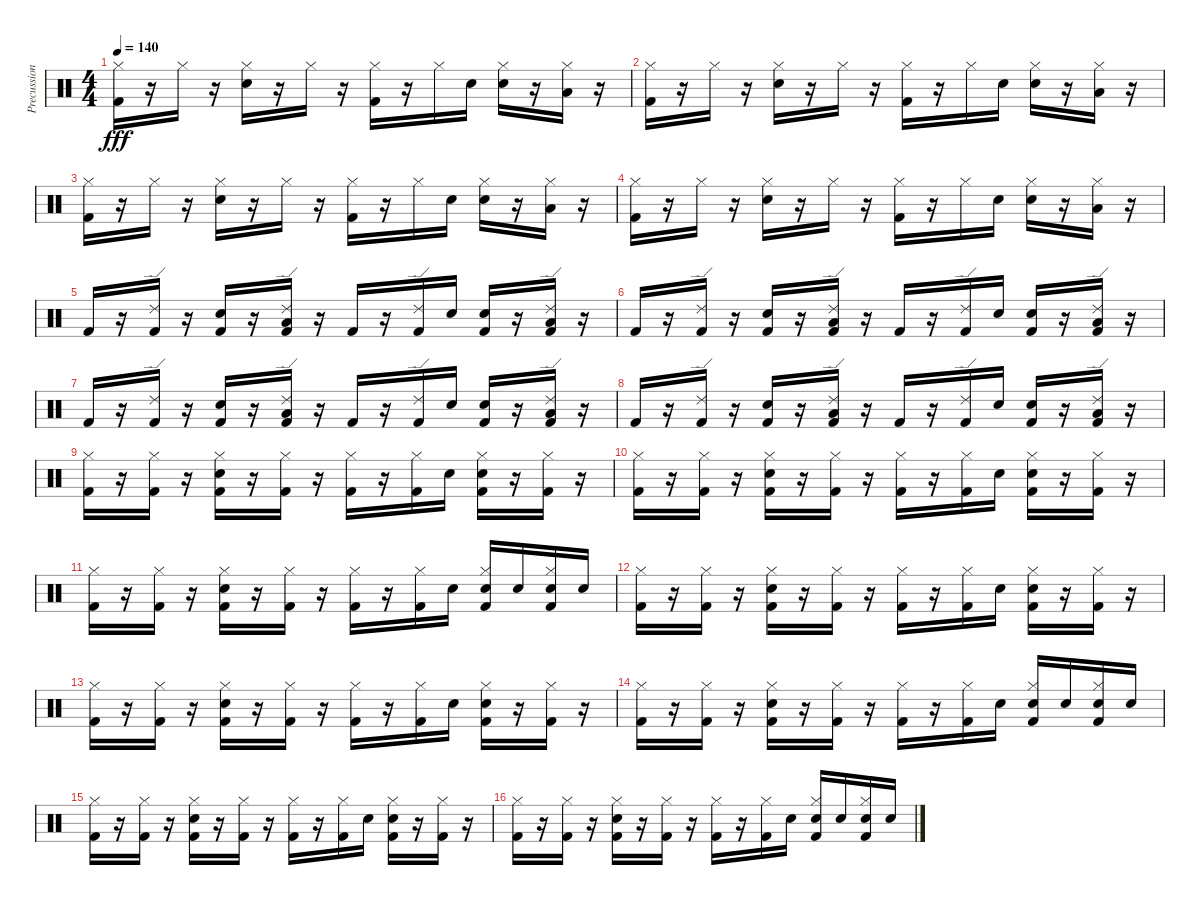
\track ("Precussion" "Precussion") {instrument percussion}
\staff {score}
\articulation defaults
\ts (4 4)
\tempo 140
\clef neutral
\ks c
("Kick (hit) 2" "Hi-Hat (closed)").16{dy fff} r.16 "Hi-Hat (closed)".16 r.16 ("Hi-Hat (closed)" "Snare (hit) 2").16 r.16 "Hi-Hat (closed)".16 r.16 ("Hi-Hat (closed)" "Kick (hit) 2").16 r.16 "Hi-Hat (closed)".16 "Snare (hit) 2".16 ("Hi-Hat (closed)" "Snare (hit) 2").16 r.16 ("Hi-Hat (closed)" "Low Floor Tom (hit)").16 r.16 |
("Kick (hit) 2" "Hi-Hat (closed)").16 r.16 "Hi-Hat (closed)".16 r.16 ("Hi-Hat (closed)" "Snare (hit) 2").16 r.16 "Hi-Hat (closed)".16 r.16 ("Hi-Hat (closed)" "Kick (hit) 2").16 r.16 "Hi-Hat (closed)".16 "Snare (hit) 2".16 ("Hi-Hat (closed)" "Snare (hit) 2").16 r.16 ("Hi-Hat (closed)" "Low Floor Tom (hit)").16 r.16 |
("Kick (hit) 2" "Hi-Hat (closed)").16 r.16 "Hi-Hat (closed)".16 r.16 ("Hi-Hat (closed)" "Snare (hit) 2").16 r.16 "Hi-Hat (closed)".16 r.16 ("Hi-Hat (closed)" "Kick (hit) 2").16 r.16 "Hi-Hat (closed)".16 "Snare (hit) 2".16 ("Hi-Hat (closed)" "Snare (hit) 2").16 r.16 ("Hi-Hat (closed)" "Low Floor Tom (hit)").16 r.16 |
("Kick (hit) 2" "Hi-Hat (closed)").16 r.16 "Hi-Hat (closed)".16 r.16 ("Hi-Hat (closed)" "Snare (hit) 2").16 r.16 "Hi-Hat (closed)".16 r.16 ("Hi-Hat (closed)" "Kick (hit) 2").16 r.16 "Hi-Hat (closed)".16 "Snare (hit) 2".16 ("Hi-Hat (closed)" "Snare (hit) 2").16 r.16 ("Hi-Hat (closed)" "Low Floor Tom (hit)").16 r.16 |
"Kick (hit) 2".16 r.16 ("Kick (hit) 2" "Ride (edge) 2").16 r.16 ("Kick (hit) 2" "Snare (hit) 2").16 r.16 ("Kick (hit) 2" "Ride (edge) 2" "Low Floor Tom (hit)").16 r.16 "Kick (hit) 2".16 r.16 ("Kick (hit) 2" "Ride (edge) 2").16 "Snare (hit) 2".16 ("Kick (hit) 2" "Snare (hit) 2").16 r.16 ("Kick (hit) 2" "Ride (edge) 2" "Low Floor Tom (hit)").16 r.16 |
"Kick (hit) 2".16 r.16 ("Kick (hit) 2" "Ride (edge) 2").16 r.16 ("Kick (hit) 2" "Snare (hit) 2").16 r.16 ("Kick (hit) 2" "Ride (edge) 2" "Low Floor Tom (hit)").16 r.16 "Kick (hit) 2".16 r.16 ("Kick (hit) 2" "Ride (edge) 2").16 "Snare (hit) 2".16 ("Kick (hit) 2" "Snare (hit) 2").16 r.16 ("Kick (hit) 2" "Ride (edge) 2" "Low Floor Tom (hit)").16 r.16 |
"Kick (hit) 2".16 r.16 ("Kick (hit) 2" "Ride (edge) 2").16 r.16 ("Kick (hit) 2" "Snare (hit) 2").16 r.16 ("Kick (hit) 2" "Ride (edge) 2" "Low Floor Tom (hit)").16 r.16 "Kick (hit) 2".16 r.16 ("Kick (hit) 2" "Ride (edge) 2").16 "Snare (hit) 2".16 ("Kick (hit) 2" "Snare (hit) 2").16 r.16 ("Kick (hit) 2" "Ride (edge) 2" "Low Floor Tom (hit)").16 r.16 |
"Kick (hit) 2".16 r.16 ("Kick (hit) 2" "Ride (edge) 2").16 r.16 ("Kick (hit) 2" "Snare (hit) 2").16 r.16 ("Kick (hit) 2" "Ride (edge) 2" "Low Floor Tom (hit)").16 r.16 "Kick (hit) 2".16 r.16 ("Kick (hit) 2" "Ride (edge) 2").16 "Snare (hit) 2".16 ("Kick (hit) 2" "Snare (hit) 2").16 r.16 ("Kick (hit) 2" "Ride (edge) 2" "Low Floor Tom (hit)").16 r.16 |
("Kick (hit) 2" "Hi-Hat (closed)").16 r.16 ("Kick (hit) 2" "Hi-Hat (closed)").16 r.16 ("Kick (hit) 2" "Snare (hit) 2" "Hi-Hat (closed)").16 r.16 ("Kick (hit) 2" "Hi-Hat (closed)").16 r.16 ("Kick (hit) 2" "Hi-Hat (closed)").16 r.16 ("Kick (hit) 2" "Hi-Hat (closed)").16 "Snare (hit) 2".16 ("Kick (hit) 2" "Snare (hit) 2" "Hi-Hat (closed)").16 r.16 ("Kick (hit) 2" "Hi-Hat (closed)").16 r.16 |
("Kick (hit) 2" "Hi-Hat (closed)").16 r.16 ("Kick (hit) 2" "Hi-Hat (closed)").16 r.16 ("Kick (hit) 2" "Snare (hit) 2" "Hi-Hat (closed)").16 r.16 ("Kick (hit) 2" "Hi-Hat (closed)").16 r.16 ("Kick (hit) 2" "Hi-Hat (closed)").16 r.16 ("Kick (hit) 2" "Hi-Hat (closed)").16 "Snare (hit) 2".16 ("Kick (hit) 2" "Snare (hit) 2" "Hi-Hat (closed)").16 r.16 ("Kick (hit) 2" "Hi-Hat (closed)").16 r.16 |
("Kick (hit) 2" "Hi-Hat (closed)").16 r.16 ("Kick (hit) 2" "Hi-Hat (closed)").16 r.16 ("Kick (hit) 2" "Snare (hit) 2" "Hi-Hat (closed)").16 r.16 ("Kick (hit) 2" "Hi-Hat (closed)").16 r.16 ("Kick (hit) 2" "Hi-Hat (closed)").16 r.16 ("Kick (hit) 2" "Hi-Hat (closed)").16 "Snare (hit) 2".16 ("Kick (hit) 2" "Snare (hit) 2" "Hi-Hat (closed)").16 "Snare (hit) 2".16 ("Kick (hit) 2" "Hi-Hat (closed)" "Snare (hit) 2").16 "Snare (hit) 2".16 |
("Kick (hit) 2" "Hi-Hat (closed)").16 r.16 ("Kick (hit) 2" "Hi-Hat (closed)").16 r.16 ("Kick (hit) 2" "Snare (hit) 2" "Hi-Hat (closed)").16 r.16 ("Kick (hit) 2" "Hi-Hat (closed)").16 r.16 ("Kick (hit) 2" "Hi-Hat (closed)").16 r.16 ("Kick (hit) 2" "Hi-Hat (closed)").16 "Snare (hit) 2".16 ("Kick (hit) 2" "Snare (hit) 2" "Hi-Hat (closed)").16 r.16 ("Kick (hit) 2" "Hi-Hat (closed)").16 r.16 |
("Kick (hit) 2" "Hi-Hat (closed)").16 r.16 ("Kick (hit) 2" "Hi-Hat (closed)").16 r.16 ("Kick (hit) 2" "Snare (hit) 2" "Hi-Hat (closed)").16 r.16 ("Kick (hit) 2" "Hi-Hat (closed)").16 r.16 ("Kick (hit) 2" "Hi-Hat (closed)").16 r.16 ("Kick (hit) 2" "Hi-Hat (closed)").16 "Snare (hit) 2".16 ("Kick (hit) 2" "Snare (hit) 2" "Hi-Hat (closed)").16 r.16 ("Kick (hit) 2" "Hi-Hat (closed)").16 r.16 |
("Kick (hit) 2" "Hi-Hat (closed)").16 r.16 ("Kick (hit) 2" "Hi-Hat (closed)").16 r.16 ("Kick (hit) 2" "Snare (hit) 2" "Hi-Hat (closed)").16 r.16 ("Kick (hit) 2" "Hi-Hat (closed)").16 r.16 ("Kick (hit) 2" "Hi-Hat (closed)").16 r.16 ("Kick (hit) 2" "Hi-Hat (closed)").16 "Snare (hit) 2".16 ("Kick (hit) 2" "Snare (hit) 2" "Hi-Hat (closed)").16 "Snare (hit) 2".16 ("Kick (hit) 2" "Hi-Hat (closed)" "Snare (hit) 2").16 "Snare (hit) 2".16 |
("Kick (hit) 2" "Hi-Hat (closed)").16 r.16 ("Kick (hit) 2" "Hi-Hat (closed)").16 r.16 ("Kick (hit) 2" "Snare (hit) 2" "Hi-Hat (closed)").16 r.16 ("Kick (hit) 2" "Hi-Hat (closed)").16 r.16 ("Kick (hit) 2" "Hi-Hat (closed)").16 r.16 ("Kick (hit) 2" "Hi-Hat (closed)").16 "Snare (hit) 2".16 ("Kick (hit) 2" "Snare (hit) 2" "Hi-Hat (closed)").16 r.16 ("Kick (hit) 2" "Hi-Hat (closed)").16 r.16 |
("Kick (hit) 2" "Hi-Hat (closed)").16 r.16 ("Kick (hit) 2" "Hi-Hat (closed)").16 r.16 ("Kick (hit) 2" "Snare (hit) 2" "Hi-Hat (closed)").16 r.16 ("Kick (hit) 2" "Hi-Hat (closed)").16 r.16 ("Kick (hit) 2" "Hi-Hat (closed)").16 r.16 ("Kick (hit) 2" "Hi-Hat (closed)").16 "Snare (hit) 2".16 ("Kick (hit) 2" "Snare (hit) 2" "Hi-Hat (closed)").16 "Snare (hit) 2".16 ("Kick (hit) 2" "Hi-Hat (closed)" "Snare (hit) 2").16 "Snare (hit) 2".16
